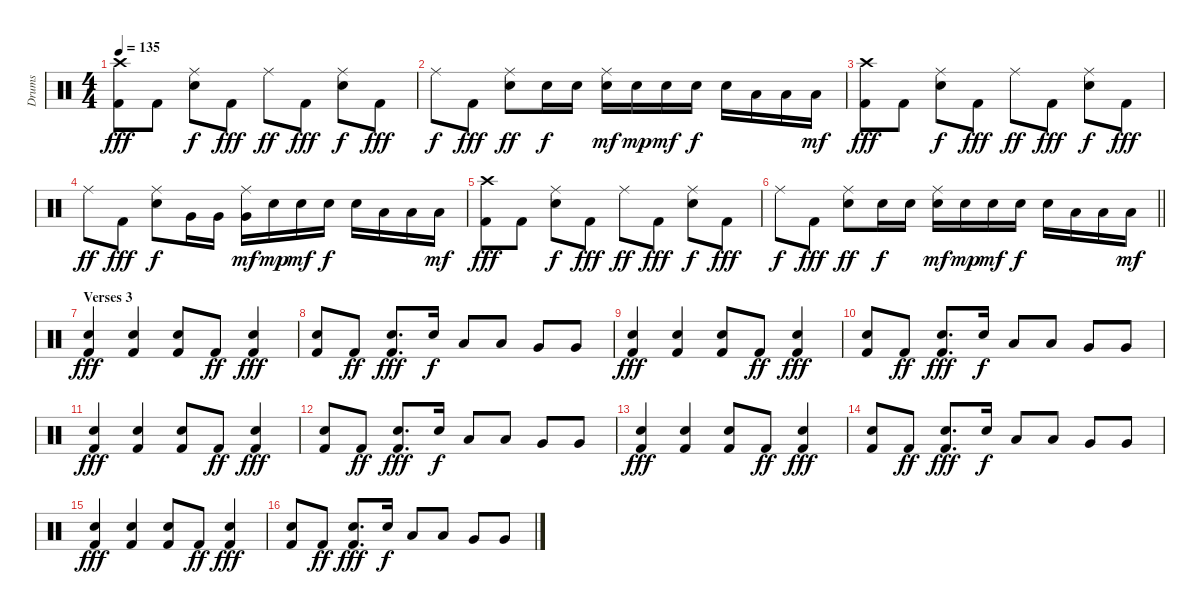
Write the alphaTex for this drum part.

\track ("Drums" "Drums") {instrument percussion}
\staff {score}
\articulation defaults
\ts (4 4)
\tempo 135
\clef neutral
\ks c
("Crash high (hit)" "Kick (hit) 2").8{dy fff} "Kick (hit) 2".8 ("Ride (middle)" "Electric Snare (hit)").8{dy f} "Kick (hit) 2".8{dy fff} "Ride (middle)".8{dy ff} "Kick (hit) 2".8{dy fff} ("Ride (middle)" "Electric Snare (hit)").8{dy f} "Kick (hit) 2".8{dy fff} |
"Ride (middle)".8{dy f} "Kick (hit) 2".8{dy fff} ("Ride (middle)" "Electric Snare (hit)").8{dy ff} "Electric Snare (hit)".16{dy f} "Electric Snare (hit)".16 ("Ride (middle)" "Electric Snare (hit)").16{dy mf} "Electric Snare (hit)".16{dy mp} "Electric Snare (hit)".16{dy mf} "Electric Snare (hit)".16{dy f} "Electric Snare (hit)".16 "Low Tom (hit)".16 "Low Tom (hit)".16 "Low Tom (hit)".16{dy mf} |
("Crash high (hit)" "Kick (hit) 2").8{dy fff} "Kick (hit) 2".8 ("Ride (middle)" "Electric Snare (hit)").8{dy f} "Kick (hit) 2".8{dy fff} "Ride (middle)".8{dy ff} "Kick (hit) 2".8{dy fff} ("Ride (middle)" "Electric Snare (hit)").8{dy f} "Kick (hit) 2".8{dy fff} |
"Ride (middle)".8{dy ff} "Kick (hit) 2".8{dy fff} ("Ride (middle)" "Electric Snare (hit)").8{dy f} "Very Low Tom (hit)".16 "Very Low Tom (hit)".16 ("Ride (middle)" "Very Low Tom (hit)").16{dy mf} "Electric Snare (hit)".16{dy mp} "Electric Snare (hit)".16{dy mf} "Electric Snare (hit)".16{dy f} "Electric Snare (hit)".16 "Low Tom (hit)".16 "Low Tom (hit)".16 "Low Tom (hit)".16{dy mf} |
("Crash high (hit)" "Kick (hit) 2").8{dy fff} "Kick (hit) 2".8 ("Ride (middle)" "Electric Snare (hit)").8{dy f} "Kick (hit) 2".8{dy fff} "Ride (middle)".8{dy ff} "Kick (hit) 2".8{dy fff} ("Ride (middle)" "Electric Snare (hit)").8{dy f} "Kick (hit) 2".8{dy fff} |
\barLineRight lightlight "Ride (middle)".8{dy f} "Kick (hit) 2".8{dy fff}
("Ride (middle)" "Electric Snare (hit)").8{dy ff} "Electric Snare (hit)".16{dy f} "Electric Snare (hit)".16 ("Ride (middle)" "Electric Snare (hit)").16{dy mf} "Electric Snare (hit)".16{dy mp} "Electric Snare (hit)".16{dy mf} "Electric Snare (hit)".16{dy f} "Electric Snare (hit)".16 "Low Tom (hit)".16 "Low Tom (hit)".16 "Low Tom (hit)".16{dy mf} |
\section ("" "Verses 3")
("Electric Snare (hit)" "Kick (hit) 2").4{dy fff} ("Electric Snare (hit)" "Kick (hit) 2").4 ("Electric Snare (hit)" "Kick (hit) 2").8 "Kick (hit) 2".8{dy ff} ("Electric Snare (hit)" "Kick (hit) 2").4{dy fff} |
("Electric Snare (hit)" "Kick (hit) 2").8 "Kick (hit) 2".8{dy ff} ("Electric Snare (hit)" "Kick (hit) 2").8{d dy fff} "Electric Snare (hit)".16{dy f} "Low Tom (hit)".8 "Low Tom (hit)".8 "Very Low Tom (hit)".8 "Very Low Tom (hit)".8 |
("Electric Snare (hit)" "Kick (hit) 2").4{dy fff} ("Electric Snare (hit)" "Kick (hit) 2").4 ("Electric Snare (hit)" "Kick (hit) 2").8 "Kick (hit) 2".8{dy ff} ("Electric Snare (hit)" "Kick (hit) 2").4{dy fff} |
("Electric Snare (hit)" "Kick (hit) 2").8 "Kick (hit) 2".8{dy ff} ("Electric Snare (hit)" "Kick (hit) 2").8{d dy fff} "Electric Snare (hit)".16{dy f} "Low Tom (hit)".8 "Low Tom (hit)".8 "Very Low Tom (hit)".8 "Very Low Tom (hit)".8 |
("Electric Snare (hit)" "Kick (hit) 2").4{dy fff} ("Electric Snare (hit)" "Kick (hit) 2").4 ("Electric Snare (hit)" "Kick (hit) 2").8 "Kick (hit) 2".8{dy ff} ("Electric Snare (hit)" "Kick (hit) 2").4{dy fff} |
("Electric Snare (hit)" "Kick (hit) 2").8 "Kick (hit) 2".8{dy ff} ("Electric Snare (hit)" "Kick (hit) 2").8{d dy fff} "Electric Snare (hit)".16{dy f} "Low Tom (hit)".8 "Low Tom (hit)".8 "Very Low Tom (hit)".8 "Very Low Tom (hit)".8 |
("Electric Snare (hit)" "Kick (hit) 2").4{dy fff} ("Electric Snare (hit)" "Kick (hit) 2").4 ("Electric Snare (hit)" "Kick (hit) 2").8 "Kick (hit) 2".8{dy ff} ("Electric Snare (hit)" "Kick (hit) 2").4{dy fff} |
("Electric Snare (hit)" "Kick (hit) 2").8 "Kick (hit) 2".8{dy ff} ("Electric Snare (hit)" "Kick (hit) 2").8{d dy fff} "Electric Snare (hit)".16{dy f} "Low Tom (hit)".8 "Low Tom (hit)".8 "Very Low Tom (hit)".8 "Very Low Tom (hit)".8 |
("Electric Snare (hit)" "Kick (hit) 2").4{dy fff} ("Electric Snare (hit)" "Kick (hit) 2").4 ("Electric Snare (hit)" "Kick (hit) 2").8 "Kick (hit) 2".8{dy ff} ("Electric Snare (hit)" "Kick (hit) 2").4{dy fff} |
("Electric Snare (hit)" "Kick (hit) 2").8 "Kick (hit) 2".8{dy ff} ("Electric Snare (hit)" "Kick (hit) 2").8{d dy fff} "Electric Snare (hit)".16{dy f} "Low Tom (hit)".8 "Low Tom (hit)".8 "Very Low Tom (hit)".8 "Very Low Tom (hit)".8
